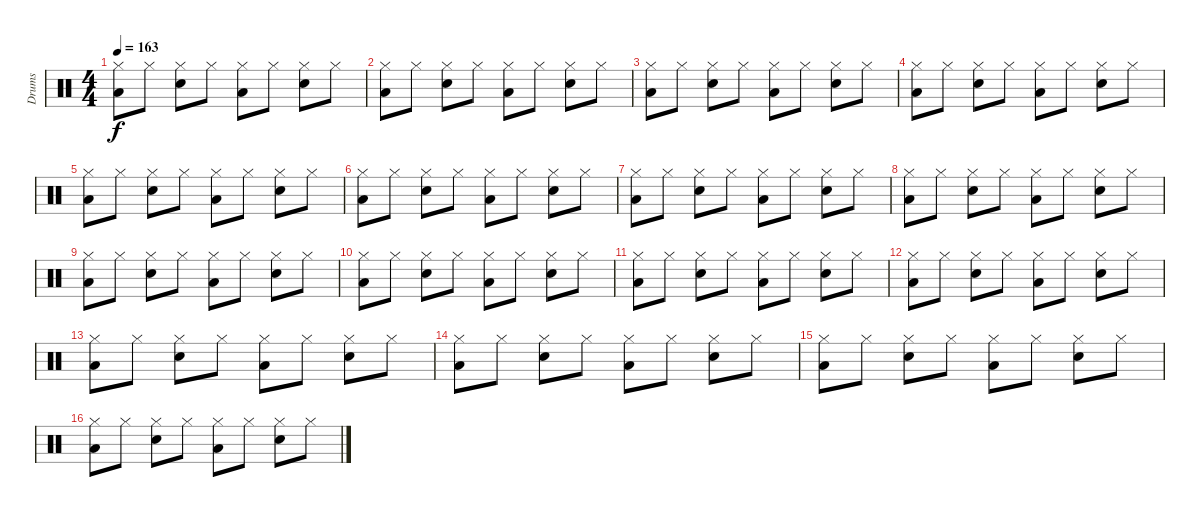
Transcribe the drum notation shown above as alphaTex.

\track ("Drums" "Drums") {instrument percussion}
\staff {score}
\articulation defaults
\ts (4 4)
\tempo 163
\clef neutral
\ks c
("Low Tom (hit)" "Hi-Hat (closed)").8{dy f} "Hi-Hat (closed)".8 ("Snare (hit) 2" "Hi-Hat (closed)").8 "Hi-Hat (closed)".8 ("Low Tom (hit)" "Hi-Hat (closed)").8 "Hi-Hat (closed)".8 ("Snare (hit) 2" "Hi-Hat (closed)").8 "Hi-Hat (closed)".8 |
("Low Tom (hit)" "Hi-Hat (closed)").8 "Hi-Hat (closed)".8 ("Snare (hit) 2" "Hi-Hat (closed)").8 "Hi-Hat (closed)".8 ("Low Tom (hit)" "Hi-Hat (closed)").8 "Hi-Hat (closed)".8 ("Snare (hit) 2" "Hi-Hat (closed)").8 "Hi-Hat (closed)".8 |
("Low Tom (hit)" "Hi-Hat (closed)").8 "Hi-Hat (closed)".8 ("Snare (hit) 2" "Hi-Hat (closed)").8 "Hi-Hat (closed)".8 ("Low Tom (hit)" "Hi-Hat (closed)").8 "Hi-Hat (closed)".8 ("Snare (hit) 2" "Hi-Hat (closed)").8 "Hi-Hat (closed)".8 |
("Low Tom (hit)" "Hi-Hat (closed)").8 "Hi-Hat (closed)".8 ("Snare (hit) 2" "Hi-Hat (closed)").8 "Hi-Hat (closed)".8 ("Low Tom (hit)" "Hi-Hat (closed)").8 "Hi-Hat (closed)".8 ("Snare (hit) 2" "Hi-Hat (closed)").8 "Hi-Hat (closed)".8 |
("Low Tom (hit)" "Hi-Hat (closed)").8 "Hi-Hat (closed)".8 ("Snare (hit) 2" "Hi-Hat (closed)").8 "Hi-Hat (closed)".8 ("Low Tom (hit)" "Hi-Hat (closed)").8 "Hi-Hat (closed)".8 ("Snare (hit) 2" "Hi-Hat (closed)").8 "Hi-Hat (closed)".8 |
("Low Tom (hit)" "Hi-Hat (closed)").8 "Hi-Hat (closed)".8 ("Snare (hit) 2" "Hi-Hat (closed)").8 "Hi-Hat (closed)".8 ("Low Tom (hit)" "Hi-Hat (closed)").8 "Hi-Hat (closed)".8 ("Snare (hit) 2" "Hi-Hat (closed)").8 "Hi-Hat (closed)".8 |
("Low Tom (hit)" "Hi-Hat (closed)").8 "Hi-Hat (closed)".8 ("Snare (hit) 2" "Hi-Hat (closed)").8 "Hi-Hat (closed)".8 ("Low Tom (hit)" "Hi-Hat (closed)").8 "Hi-Hat (closed)".8 ("Snare (hit) 2" "Hi-Hat (closed)").8 "Hi-Hat (closed)".8 |
("Low Tom (hit)" "Hi-Hat (closed)").8 "Hi-Hat (closed)".8 ("Snare (hit) 2" "Hi-Hat (closed)").8 "Hi-Hat (closed)".8 ("Low Tom (hit)" "Hi-Hat (closed)").8 "Hi-Hat (closed)".8 ("Snare (hit) 2" "Hi-Hat (closed)").8 "Hi-Hat (closed)".8 |
("Low Tom (hit)" "Hi-Hat (closed)").8 "Hi-Hat (closed)".8 ("Snare (hit) 2" "Hi-Hat (closed)").8 "Hi-Hat (closed)".8 ("Low Tom (hit)" "Hi-Hat (closed)").8 "Hi-Hat (closed)".8 ("Snare (hit) 2" "Hi-Hat (closed)").8 "Hi-Hat (closed)".8 |
("Low Tom (hit)" "Hi-Hat (closed)").8 "Hi-Hat (closed)".8 ("Snare (hit) 2" "Hi-Hat (closed)").8 "Hi-Hat (closed)".8 ("Low Tom (hit)" "Hi-Hat (closed)").8 "Hi-Hat (closed)".8 ("Snare (hit) 2" "Hi-Hat (closed)").8 "Hi-Hat (closed)".8 |
("Low Tom (hit)" "Hi-Hat (closed)").8 "Hi-Hat (closed)".8 ("Snare (hit) 2" "Hi-Hat (closed)").8 "Hi-Hat (closed)".8 ("Low Tom (hit)" "Hi-Hat (closed)").8 "Hi-Hat (closed)".8 ("Snare (hit) 2" "Hi-Hat (closed)").8 "Hi-Hat (closed)".8 |
("Low Tom (hit)" "Hi-Hat (closed)").8 "Hi-Hat (closed)".8 ("Snare (hit) 2" "Hi-Hat (closed)").8 "Hi-Hat (closed)".8 ("Low Tom (hit)" "Hi-Hat (closed)").8 "Hi-Hat (closed)".8 ("Snare (hit) 2" "Hi-Hat (closed)").8 "Hi-Hat (closed)".8 |
("Low Tom (hit)" "Hi-Hat (closed)").8 "Hi-Hat (closed)".8 ("Snare (hit) 2" "Hi-Hat (closed)").8 "Hi-Hat (closed)".8 ("Low Tom (hit)" "Hi-Hat (closed)").8 "Hi-Hat (closed)".8 ("Snare (hit) 2" "Hi-Hat (closed)").8 "Hi-Hat (closed)".8 |
("Low Tom (hit)" "Hi-Hat (closed)").8 "Hi-Hat (closed)".8 ("Snare (hit) 2" "Hi-Hat (closed)").8 "Hi-Hat (closed)".8 ("Low Tom (hit)" "Hi-Hat (closed)").8 "Hi-Hat (closed)".8 ("Snare (hit) 2" "Hi-Hat (closed)").8 "Hi-Hat (closed)".8 |
("Low Tom (hit)" "Hi-Hat (closed)").8 "Hi-Hat (closed)".8 ("Snare (hit) 2" "Hi-Hat (closed)").8 "Hi-Hat (closed)".8 ("Low Tom (hit)" "Hi-Hat (closed)").8 "Hi-Hat (closed)".8 ("Snare (hit) 2" "Hi-Hat (closed)").8 "Hi-Hat (closed)".8 |
("Low Tom (hit)" "Hi-Hat (closed)").8 "Hi-Hat (closed)".8 ("Snare (hit) 2" "Hi-Hat (closed)").8 "Hi-Hat (closed)".8 ("Low Tom (hit)" "Hi-Hat (closed)").8 "Hi-Hat (closed)".8 ("Snare (hit) 2" "Hi-Hat (closed)").8 "Hi-Hat (closed)".8
